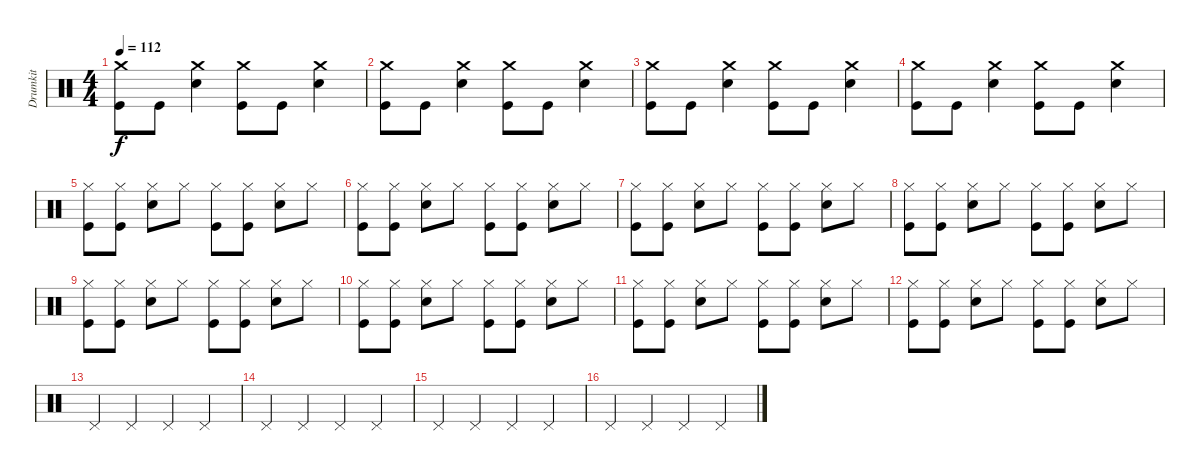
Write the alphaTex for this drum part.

\track ("Drumkit" "Drumkit") {instrument percussion}
\staff {score}
\articulation defaults
\ts (4 4)
\tempo 112
\clef neutral
\ks c
("Crash medium (hit)" "Kick (hit)").8{dy f} "Kick (hit)".8 ("Crash medium (hit)" "Snare (hit) 2").4 ("Crash medium (hit)" "Kick (hit)").8 "Kick (hit)".8 ("Crash medium (hit)" "Snare (hit) 2").4 |
("Crash medium (hit)" "Kick (hit)").8 "Kick (hit)".8 ("Crash medium (hit)" "Snare (hit) 2").4 ("Crash medium (hit)" "Kick (hit)").8 "Kick (hit)".8 ("Crash medium (hit)" "Snare (hit) 2").4 |
("Crash medium (hit)" "Kick (hit)").8 "Kick (hit)".8 ("Crash medium (hit)" "Snare (hit) 2").4 ("Crash medium (hit)" "Kick (hit)").8 "Kick (hit)".8 ("Crash medium (hit)" "Snare (hit) 2").4 |
("Crash medium (hit)" "Kick (hit)").8 "Kick (hit)".8 ("Crash medium (hit)" "Snare (hit) 2").4 ("Crash medium (hit)" "Kick (hit)").8 "Kick (hit)".8 ("Crash medium (hit)" "Snare (hit) 2").4 |
("Hi-Hat (closed)" "Kick (hit)").8 ("Hi-Hat (closed)" "Kick (hit)").8 ("Hi-Hat (closed)" "Snare (hit) 2").8 "Hi-Hat (closed)".8 ("Hi-Hat (closed)" "Kick (hit)").8 ("Hi-Hat (closed)" "Kick (hit)").8 ("Hi-Hat (closed)" "Snare (hit) 2").8 "Hi-Hat (closed)".8 |
("Hi-Hat (closed)" "Kick (hit)").8 ("Hi-Hat (closed)" "Kick (hit)").8 ("Hi-Hat (closed)" "Snare (hit) 2").8 "Hi-Hat (closed)".8 ("Hi-Hat (closed)" "Kick (hit)").8 ("Hi-Hat (closed)" "Kick (hit)").8 ("Hi-Hat (closed)" "Snare (hit) 2").8 "Hi-Hat (closed)".8 |
("Hi-Hat (closed)" "Kick (hit)").8 ("Hi-Hat (closed)" "Kick (hit)").8 ("Hi-Hat (closed)" "Snare (hit) 2").8 "Hi-Hat (closed)".8 ("Hi-Hat (closed)" "Kick (hit)").8 ("Hi-Hat (closed)" "Kick (hit)").8 ("Hi-Hat (closed)" "Snare (hit) 2").8 "Hi-Hat (closed)".8 |
("Hi-Hat (closed)" "Kick (hit)").8 ("Hi-Hat (closed)" "Kick (hit)").8 ("Hi-Hat (closed)" "Snare (hit) 2").8 "Hi-Hat (closed)".8 ("Hi-Hat (closed)" "Kick (hit)").8 ("Hi-Hat (closed)" "Kick (hit)").8 ("Hi-Hat (closed)" "Snare (hit) 2").8 "Hi-Hat (closed)".8 |
("Hi-Hat (closed)" "Kick (hit)").8 ("Hi-Hat (closed)" "Kick (hit)").8 ("Hi-Hat (closed)" "Snare (hit) 2").8 "Hi-Hat (closed)".8 ("Hi-Hat (closed)" "Kick (hit)").8 ("Hi-Hat (closed)" "Kick (hit)").8 ("Hi-Hat (closed)" "Snare (hit) 2").8 "Hi-Hat (closed)".8 |
("Hi-Hat (closed)" "Kick (hit)").8 ("Hi-Hat (closed)" "Kick (hit)").8 ("Hi-Hat (closed)" "Snare (hit) 2").8 "Hi-Hat (closed)".8 ("Hi-Hat (closed)" "Kick (hit)").8 ("Hi-Hat (closed)" "Kick (hit)").8 ("Hi-Hat (closed)" "Snare (hit) 2").8 "Hi-Hat (closed)".8 |
("Hi-Hat (closed)" "Kick (hit)").8 ("Hi-Hat (closed)" "Kick (hit)").8 ("Hi-Hat (closed)" "Snare (hit) 2").8 "Hi-Hat (closed)".8 ("Hi-Hat (closed)" "Kick (hit)").8 ("Hi-Hat (closed)" "Kick (hit)").8 ("Hi-Hat (closed)" "Snare (hit) 2").8 "Hi-Hat (closed)".8 |
("Hi-Hat (closed)" "Kick (hit)").8 ("Hi-Hat (closed)" "Kick (hit)").8 ("Hi-Hat (closed)" "Snare (hit) 2").8 "Hi-Hat (closed)".8 ("Hi-Hat (closed)" "Kick (hit)").8 ("Hi-Hat (closed)" "Kick (hit)").8 ("Hi-Hat (closed)" "Snare (hit) 2").8 "Hi-Hat (closed)".8 |
"Pedal Hi-Hat (hit)".4 "Pedal Hi-Hat (hit)".4 "Pedal Hi-Hat (hit)".4 "Pedal Hi-Hat (hit)".4 |
"Pedal Hi-Hat (hit)".4 "Pedal Hi-Hat (hit)".4 "Pedal Hi-Hat (hit)".4 "Pedal Hi-Hat (hit)".4 |
"Pedal Hi-Hat (hit)".4 "Pedal Hi-Hat (hit)".4 "Pedal Hi-Hat (hit)".4 "Pedal Hi-Hat (hit)".4 |
"Pedal Hi-Hat (hit)".4 "Pedal Hi-Hat (hit)".4 "Pedal Hi-Hat (hit)".4 "Pedal Hi-Hat (hit)".4
